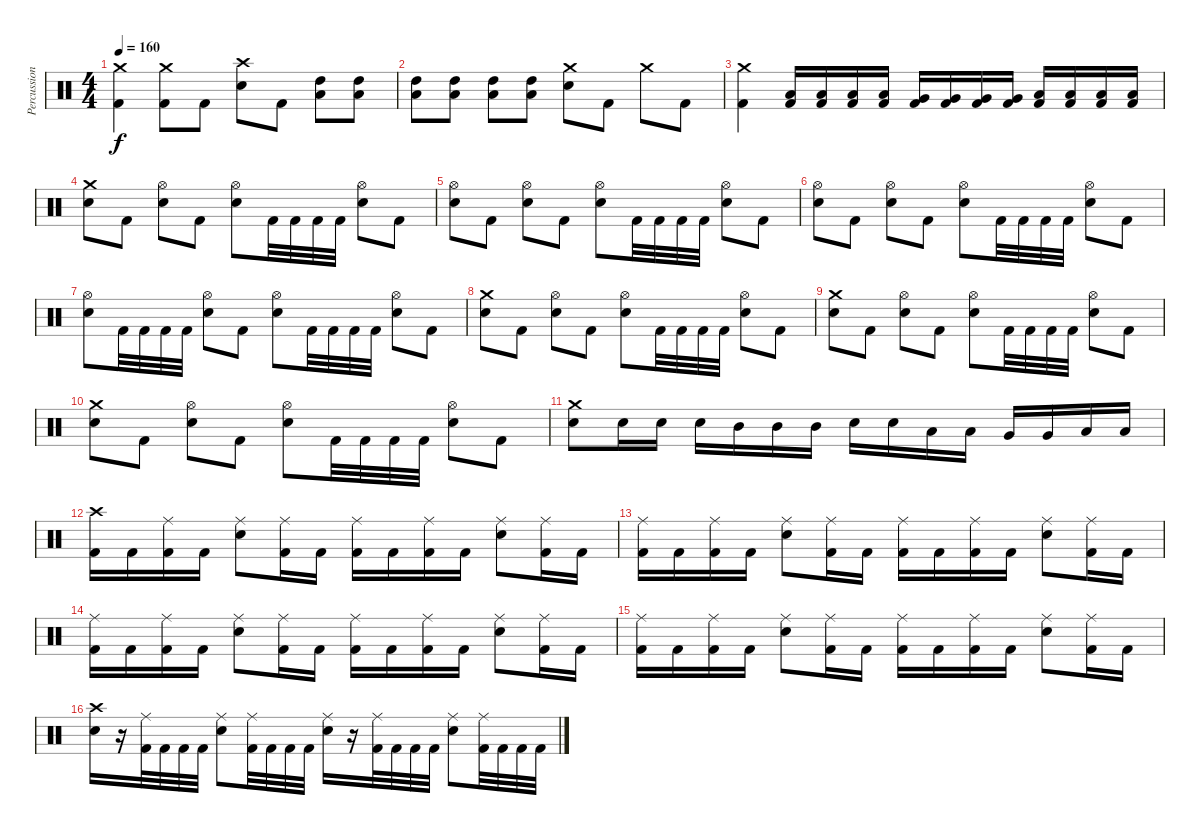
\track ("Percussion" "Percussion") {instrument percussion}
\staff {score}
\articulation defaults
\ts (4 4)
\tempo 160
\clef neutral
\ks c
("Kick (hit) 2" "Crash medium (hit)").4{dy f} ("Kick (hit) 2" "Crash medium (hit)").8 "Kick (hit) 2".8 ("Snare (hit) 2" "Crash high (hit)").8 "Kick (hit) 2".8 ("Low Tom (hit)" "High Tom (hit)").8 ("Low Tom (hit)" "High Tom (hit)").8 |
("Low Tom (hit)" "High Tom (hit)").8 ("Low Tom (hit)" "High Tom (hit)").8 ("Low Tom (hit)" "High Tom (hit)").8 ("Low Tom (hit)" "High Tom (hit)").8 ("Snare (hit) 2" "Crash medium (hit)").8 "Kick (hit) 2".8 "Crash medium (hit)".8 "Kick (hit) 2".8 |
("Kick (hit) 2" "Crash medium (hit)").4 ("Low Tom (hit)" "Kick (hit) 2").16 ("Low Tom (hit)" "Kick (hit) 2").16 ("Low Tom (hit)" "Kick (hit) 2").16 ("Low Tom (hit)" "Kick (hit) 2").16 ("Very Low Tom (hit)" "Kick (hit) 2").16 ("Very Low Tom (hit)" "Kick (hit) 2").16 ("Very Low Tom (hit)" "Kick (hit) 2").16 ("Very Low Tom (hit)" "Kick (hit) 2").16 ("Low Floor Tom (hit)" "Kick (hit) 2").16 ("Low Floor Tom (hit)" "Kick (hit) 2").16 ("Low Floor Tom (hit)" "Kick (hit) 2").16 ("Low Floor Tom (hit)" "Kick (hit) 2").16 |
("Snare (hit) 2" "Crash medium (hit)").8 "Kick (hit) 2".8 ("Snare (hit) 2" "Hi-Hat (open)").8 "Kick (hit) 2".8 ("Snare (hit) 2" "Hi-Hat (open)").8 "Kick (hit) 2".32 "Kick (hit) 2".32 "Kick (hit) 2".32 "Kick (hit) 2".32 ("Snare (hit) 2" "Hi-Hat (open)").8 "Kick (hit) 2".8 |
("Snare (hit) 2" "Hi-Hat (open)").8 "Kick (hit) 2".8 ("Snare (hit) 2" "Hi-Hat (open)").8 "Kick (hit) 2".8 ("Snare (hit) 2" "Hi-Hat (open)").8 "Kick (hit) 2".32 "Kick (hit) 2".32 "Kick (hit) 2".32 "Kick (hit) 2".32 ("Snare (hit) 2" "Hi-Hat (open)").8 "Kick (hit) 2".8 |
("Snare (hit) 2" "Hi-Hat (open)").8 "Kick (hit) 2".8 ("Snare (hit) 2" "Hi-Hat (open)").8 "Kick (hit) 2".8 ("Snare (hit) 2" "Hi-Hat (open)").8 "Kick (hit) 2".32 "Kick (hit) 2".32 "Kick (hit) 2".32 "Kick (hit) 2".32 ("Snare (hit) 2" "Hi-Hat (open)").8 "Kick (hit) 2".8 |
("Snare (hit) 2" "Hi-Hat (open)").8 "Kick (hit) 2".32 "Kick (hit) 2".32 "Kick (hit) 2".32 "Kick (hit) 2".32 ("Snare (hit) 2" "Hi-Hat (open)").8 "Kick (hit) 2".8 ("Snare (hit) 2" "Hi-Hat (open)").8 "Kick (hit) 2".32 "Kick (hit) 2".32 "Kick (hit) 2".32 "Kick (hit) 2".32 ("Snare (hit) 2" "Hi-Hat (open)").8 "Kick (hit) 2".8 |
("Snare (hit) 2" "Crash medium (hit)").8 "Kick (hit) 2".8 ("Snare (hit) 2" "Hi-Hat (open)").8 "Kick (hit) 2".8 ("Snare (hit) 2" "Hi-Hat (open)").8 "Kick (hit) 2".32 "Kick (hit) 2".32 "Kick (hit) 2".32 "Kick (hit) 2".32 ("Snare (hit) 2" "Hi-Hat (open)").8 "Kick (hit) 2".8 |
("Snare (hit) 2" "Crash medium (hit)").8 "Kick (hit) 2".8 ("Snare (hit) 2" "Hi-Hat (open)").8 "Kick (hit) 2".8 ("Snare (hit) 2" "Hi-Hat (open)").8 "Kick (hit) 2".32 "Kick (hit) 2".32 "Kick (hit) 2".32 "Kick (hit) 2".32 ("Snare (hit) 2" "Hi-Hat (open)").8 "Kick (hit) 2".8 |
("Snare (hit) 2" "Crash medium (hit)").8 "Kick (hit) 2".8 ("Snare (hit) 2" "Hi-Hat (open)").8 "Kick (hit) 2".8 ("Snare (hit) 2" "Hi-Hat (open)").8 "Kick (hit) 2".32 "Kick (hit) 2".32 "Kick (hit) 2".32 "Kick (hit) 2".32 ("Snare (hit) 2" "Hi-Hat (open)").8 "Kick (hit) 2".8 |
("Snare (hit) 2" "Crash medium (hit)").8 "Snare (hit) 2".16 "Snare (hit) 2".16 "Snare (hit) 2".16 "Mid Tom (hit)".16 "Mid Tom (hit)".16 "Mid Tom (hit)".16 "Snare (hit) 2".16 "Snare (hit) 2".16 "Low Tom (hit)".16 "Low Tom (hit)".16 "Very Low Tom (hit)".16 "Very Low Tom (hit)".16 "Low Floor Tom (hit)".16 "Low Floor Tom (hit)".16 |
("Kick (hit) 2" "Crash high (hit)").16 "Kick (hit) 2".16 ("Kick (hit) 2" "Ride (middle)").16 "Kick (hit) 2".16 ("Snare (hit) 2" "Ride (middle)").8 ("Kick (hit) 2" "Ride (middle)").16 "Kick (hit) 2".16 ("Kick (hit) 2" "Ride (middle)").16 "Kick (hit) 2".16 ("Kick (hit) 2" "Ride (middle)").16 "Kick (hit) 2".16 ("Snare (hit) 2" "Ride (middle)").8 ("Kick (hit) 2" "Ride (middle)").16 "Kick (hit) 2".16 |
("Kick (hit) 2" "Ride (middle)").16 "Kick (hit) 2".16 ("Kick (hit) 2" "Ride (middle)").16 "Kick (hit) 2".16 ("Snare (hit) 2" "Ride (middle)").8 ("Kick (hit) 2" "Ride (middle)").16 "Kick (hit) 2".16 ("Kick (hit) 2" "Ride (middle)").16 "Kick (hit) 2".16 ("Kick (hit) 2" "Ride (middle)").16 "Kick (hit) 2".16 ("Snare (hit) 2" "Ride (middle)").8 ("Kick (hit) 2" "Ride (middle)").16 "Kick (hit) 2".16 |
("Kick (hit) 2" "Ride (middle)").16 "Kick (hit) 2".16 ("Kick (hit) 2" "Ride (middle)").16 "Kick (hit) 2".16 ("Snare (hit) 2" "Ride (middle)").8 ("Kick (hit) 2" "Ride (middle)").16 "Kick (hit) 2".16 ("Kick (hit) 2" "Ride (middle)").16 "Kick (hit) 2".16 ("Kick (hit) 2" "Ride (middle)").16 "Kick (hit) 2".16 ("Snare (hit) 2" "Ride (middle)").8 ("Kick (hit) 2" "Ride (middle)").16 "Kick (hit) 2".16 |
("Kick (hit) 2" "Ride (middle)").16 "Kick (hit) 2".16 ("Kick (hit) 2" "Ride (middle)").16 "Kick (hit) 2".16 ("Snare (hit) 2" "Ride (middle)").8 ("Kick (hit) 2" "Ride (middle)").16 "Kick (hit) 2".16 ("Kick (hit) 2" "Ride (middle)").16 "Kick (hit) 2".16 ("Kick (hit) 2" "Ride (middle)").16 "Kick (hit) 2".16 ("Snare (hit) 2" "Ride (middle)").8 ("Kick (hit) 2" "Ride (middle)").16 "Kick (hit) 2".16 |
("Snare (hit) 2" "Crash high (hit)").16 r.16 ("Kick (hit) 2" "Ride (middle)").32 "Kick (hit) 2".32 "Kick (hit) 2".32 "Kick (hit) 2".32 ("Snare (hit) 2" "Ride (middle)").8 ("Kick (hit) 2" "Ride (middle)").32 "Kick (hit) 2".32 "Kick (hit) 2".32 "Kick (hit) 2".32 ("Snare (hit) 2" "Ride (middle)").16 r.16 ("Kick (hit) 2" "Ride (middle)").32 "Kick (hit) 2".32 "Kick (hit) 2".32 "Kick (hit) 2".32 ("Snare (hit) 2" "Ride (middle)").8 ("Kick (hit) 2" "Ride (middle)").32 "Kick (hit) 2".32 "Kick (hit) 2".32 "Kick (hit) 2".32
